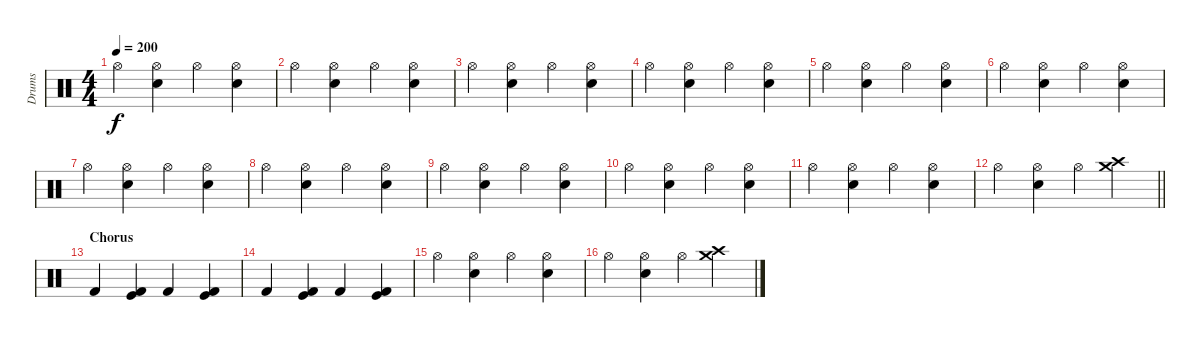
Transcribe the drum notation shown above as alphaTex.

\track ("Drums" "Drums") {instrument percussion}
\staff {score}
\articulation defaults
\ts (4 4)
\tempo 200
\clef neutral
\ks c "Hi-Hat (open)".4{dy f}
("Hi-Hat (open)" "Snare (hit) 2").4 "Hi-Hat (open)".4 ("Hi-Hat (open)" "Snare (hit) 2").4 |
"Hi-Hat (open)".4 ("Hi-Hat (open)" "Snare (hit) 2").4 "Hi-Hat (open)".4 ("Hi-Hat (open)" "Snare (hit) 2").4 |
"Hi-Hat (open)".4 ("Hi-Hat (open)" "Snare (hit) 2").4 "Hi-Hat (open)".4 ("Hi-Hat (open)" "Snare (hit) 2").4 |
"Hi-Hat (open)".4 ("Hi-Hat (open)" "Snare (hit) 2").4 "Hi-Hat (open)".4 ("Hi-Hat (open)" "Snare (hit) 2").4 |
"Hi-Hat (open)".4 ("Hi-Hat (open)" "Snare (hit) 2").4 "Hi-Hat (open)".4 ("Hi-Hat (open)" "Snare (hit) 2").4 |
"Hi-Hat (open)".4 ("Hi-Hat (open)" "Snare (hit) 2").4 "Hi-Hat (open)".4 ("Hi-Hat (open)" "Snare (hit) 2").4 |
"Hi-Hat (open)".4 ("Hi-Hat (open)" "Snare (hit) 2").4 "Hi-Hat (open)".4 ("Hi-Hat (open)" "Snare (hit) 2").4 |
"Hi-Hat (open)".4 ("Hi-Hat (open)" "Snare (hit) 2").4 "Hi-Hat (open)".4 ("Hi-Hat (open)" "Snare (hit) 2").4 |
"Hi-Hat (open)".4 ("Hi-Hat (open)" "Snare (hit) 2").4 "Hi-Hat (open)".4 ("Hi-Hat (open)" "Snare (hit) 2").4 |
"Hi-Hat (open)".4 ("Hi-Hat (open)" "Snare (hit) 2").4 "Hi-Hat (open)".4 ("Hi-Hat (open)" "Snare (hit) 2").4 |
"Hi-Hat (open)".4 ("Hi-Hat (open)" "Snare (hit) 2").4 "Hi-Hat (open)".4 ("Hi-Hat (open)" "Snare (hit) 2").4 |
\barLineRight lightlight "Hi-Hat (open)".4
("Hi-Hat (open)" "Snare (hit) 2").4 "Hi-Hat (open)".4 ("Crash high (hit)" "Crash medium (hit)").4 |
\section ("" "Chorus")
"Kick (hit) 2".4 ("Kick (hit)" "Kick (hit) 2").4 "Kick (hit) 2".4 ("Kick (hit)" "Kick (hit) 2").4 |
"Kick (hit) 2".4 ("Kick (hit)" "Kick (hit) 2").4 "Kick (hit) 2".4 ("Kick (hit)" "Kick (hit) 2").4 |
"Hi-Hat (open)".4 ("Hi-Hat (open)" "Snare (hit) 2").4 "Hi-Hat (open)".4 ("Hi-Hat (open)" "Snare (hit) 2").4 |
"Hi-Hat (open)".4 ("Hi-Hat (open)" "Snare (hit) 2").4 "Hi-Hat (open)".4 ("Crash high (hit)" "Crash medium (hit)").4
